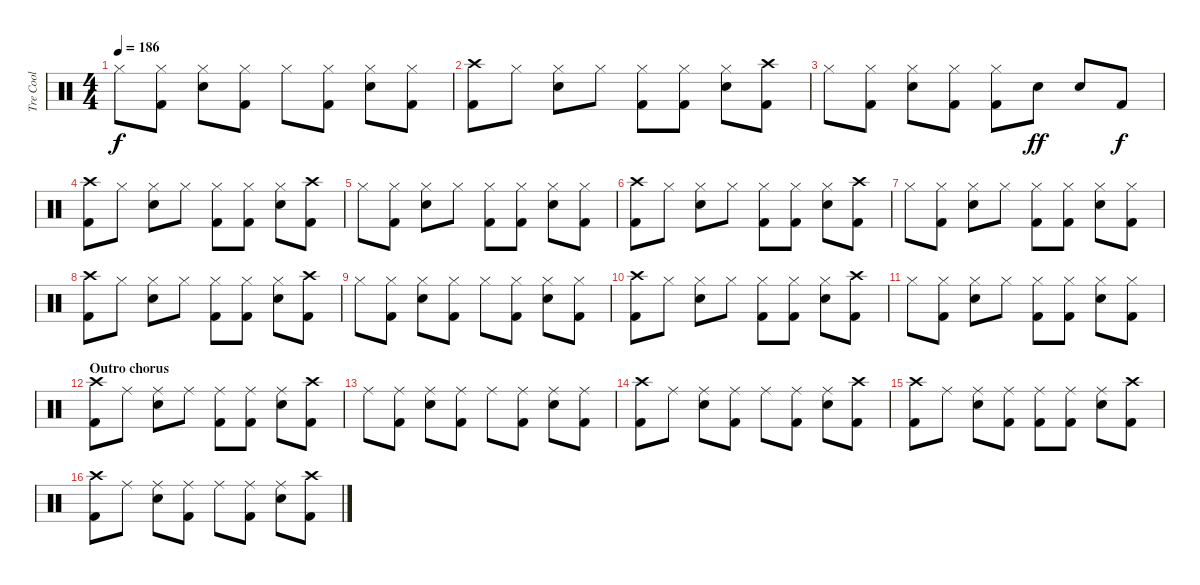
\track ("Tre Cool" "Tre Cool") {instrument percussion}
\staff {score}
\articulation defaults
\ts (4 4)
\tempo 186
\clef neutral
\ks c "Hi-Hat (closed)".8{dy f}
("Hi-Hat (closed)" "Kick (hit) 2").8 ("Hi-Hat (closed)" "Electric Snare (hit)").8 ("Hi-Hat (closed)" "Kick (hit) 2").8 "Hi-Hat (closed)".8 ("Hi-Hat (closed)" "Kick (hit) 2").8 ("Hi-Hat (closed)" "Electric Snare (hit)").8 ("Hi-Hat (closed)" "Kick (hit) 2").8 |
("Crash high (hit)" "Kick (hit) 2").8 "Hi-Hat (closed)".8 ("Hi-Hat (closed)" "Electric Snare (hit)").8 "Hi-Hat (closed)".8 ("Hi-Hat (closed)" "Kick (hit) 2").8 ("Hi-Hat (closed)" "Kick (hit) 2").8 ("Hi-Hat (closed)" "Electric Snare (hit)").8 ("Crash high (hit)" "Kick (hit) 2").8 |
"Hi-Hat (closed)".8 ("Hi-Hat (closed)" "Kick (hit) 2").8 ("Hi-Hat (closed)" "Electric Snare (hit)").8 ("Hi-Hat (closed)" "Kick (hit) 2").8 ("Hi-Hat (closed)" "Kick (hit) 2").8 "Electric Snare (hit)".8{dy ff} "Electric Snare (hit)".8 "Kick (hit) 2".8{dy f} |
("Crash high (hit)" "Kick (hit) 2").8 "Hi-Hat (closed)".8 ("Hi-Hat (closed)" "Electric Snare (hit)").8 "Hi-Hat (closed)".8 ("Hi-Hat (closed)" "Kick (hit) 2").8 ("Hi-Hat (closed)" "Kick (hit) 2").8 ("Hi-Hat (closed)" "Electric Snare (hit)").8 ("Crash high (hit)" "Kick (hit) 2").8 |
"Hi-Hat (closed)".8 ("Hi-Hat (closed)" "Kick (hit) 2").8 ("Hi-Hat (closed)" "Electric Snare (hit)").8 "Hi-Hat (closed)".8 ("Hi-Hat (closed)" "Kick (hit) 2").8 ("Hi-Hat (closed)" "Kick (hit) 2").8 ("Hi-Hat (closed)" "Electric Snare (hit)").8 ("Hi-Hat (closed)" "Kick (hit) 2").8 |
("Crash high (hit)" "Kick (hit) 2").8 "Hi-Hat (closed)".8 ("Hi-Hat (closed)" "Electric Snare (hit)").8 "Hi-Hat (closed)".8 ("Hi-Hat (closed)" "Kick (hit) 2").8 ("Hi-Hat (closed)" "Kick (hit) 2").8 ("Hi-Hat (closed)" "Electric Snare (hit)").8 ("Crash high (hit)" "Kick (hit) 2").8 |
"Hi-Hat (closed)".8 ("Hi-Hat (closed)" "Kick (hit) 2").8 ("Hi-Hat (closed)" "Electric Snare (hit)").8 "Hi-Hat (closed)".8 ("Hi-Hat (closed)" "Kick (hit) 2").8 ("Hi-Hat (closed)" "Kick (hit) 2").8 ("Hi-Hat (closed)" "Electric Snare (hit)").8 ("Hi-Hat (closed)" "Kick (hit) 2").8 |
("Crash high (hit)" "Kick (hit) 2").8 "Hi-Hat (closed)".8 ("Hi-Hat (closed)" "Electric Snare (hit)").8 "Hi-Hat (closed)".8 ("Hi-Hat (closed)" "Kick (hit) 2").8 ("Hi-Hat (closed)" "Kick (hit) 2").8 ("Hi-Hat (closed)" "Electric Snare (hit)").8 ("Crash high (hit)" "Kick (hit) 2").8 |
"Hi-Hat (closed)".8 ("Hi-Hat (closed)" "Kick (hit) 2").8 ("Hi-Hat (closed)" "Electric Snare (hit)").8 ("Hi-Hat (closed)" "Kick (hit) 2").8 "Hi-Hat (closed)".8 ("Hi-Hat (closed)" "Kick (hit) 2").8 ("Hi-Hat (closed)" "Electric Snare (hit)").8 ("Hi-Hat (closed)" "Kick (hit) 2").8 |
("Crash high (hit)" "Kick (hit) 2").8 "Hi-Hat (closed)".8 ("Hi-Hat (closed)" "Electric Snare (hit)").8 "Hi-Hat (closed)".8 ("Hi-Hat (closed)" "Kick (hit) 2").8 ("Hi-Hat (closed)" "Kick (hit) 2").8 ("Hi-Hat (closed)" "Electric Snare (hit)").8 ("Crash high (hit)" "Kick (hit) 2").8 |
"Hi-Hat (closed)".8 ("Hi-Hat (closed)" "Kick (hit) 2").8 ("Hi-Hat (closed)" "Electric Snare (hit)").8 "Hi-Hat (closed)".8 ("Hi-Hat (closed)" "Kick (hit) 2").8 ("Hi-Hat (closed)" "Kick (hit) 2").8 ("Hi-Hat (closed)" "Electric Snare (hit)").8 ("Hi-Hat (closed)" "Kick (hit) 2").8 |
\section ("" "Outro chorus")
("Crash high (hit)" "Kick (hit) 2").8 "Ride (middle)".8 ("Ride (middle)" "Electric Snare (hit)").8 "Ride (middle)".8 ("Ride (middle)" "Kick (hit) 2").8 ("Ride (middle)" "Kick (hit) 2").8 ("Ride (middle)" "Electric Snare (hit)").8 ("Crash high (hit)" "Kick (hit) 2").8 |
"Ride (middle)".8 ("Ride (middle)" "Kick (hit) 2").8 ("Ride (middle)" "Electric Snare (hit)").8 ("Ride (middle)" "Kick (hit) 2").8 "Ride (middle)".8 ("Ride (middle)" "Kick (hit) 2").8 ("Ride (middle)" "Electric Snare (hit)").8 ("Ride (middle)" "Kick (hit) 2").8 |
("Crash high (hit)" "Kick (hit) 2").8 "Ride (middle)".8 ("Ride (middle)" "Electric Snare (hit)").8 ("Ride (middle)" "Kick (hit) 2").8 "Ride (middle)".8 ("Ride (middle)" "Kick (hit) 2").8 ("Ride (middle)" "Electric Snare (hit)").8 ("Crash high (hit)" "Kick (hit) 2").8 |
("Crash high (hit)" "Kick (hit) 2").8 "Ride (middle)".8 ("Ride (middle)" "Electric Snare (hit)").8 ("Ride (middle)" "Kick (hit) 2").8 ("Ride (middle)" "Kick (hit) 2").8 ("Ride (middle)" "Kick (hit) 2").8 ("Ride (middle)" "Electric Snare (hit)").8 ("Crash high (hit)" "Kick (hit) 2").8 |
("Crash high (hit)" "Kick (hit) 2").8 "Ride (middle)".8 ("Ride (middle)" "Electric Snare (hit)").8 ("Ride (middle)" "Kick (hit) 2").8 "Ride (middle)".8 ("Ride (middle)" "Kick (hit) 2").8 ("Ride (middle)" "Electric Snare (hit)").8 ("Crash high (hit)" "Kick (hit) 2").8
